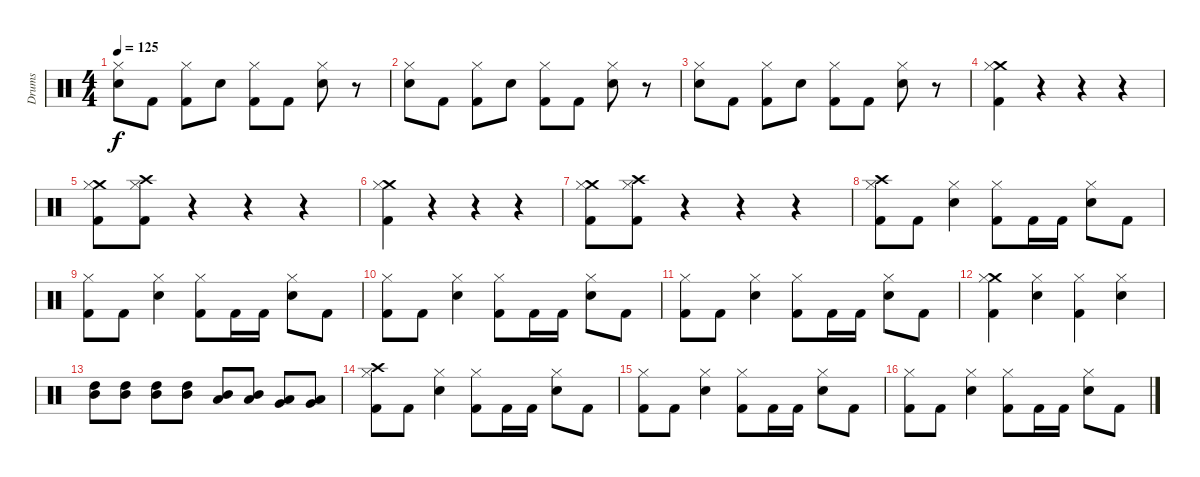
\track ("Drums" "Drums") {instrument percussion}
\staff {score}
\articulation defaults
\ts (4 4)
\tempo 125
\clef neutral
\ks c
("Electric Snare (hit)" "Hi-Hat (closed)").8{dy f} "Kick (hit) 2".8 ("Kick (hit) 2" "Hi-Hat (closed)").8 "Electric Snare (hit)".8 ("Kick (hit) 2" "Hi-Hat (closed)").8 "Kick (hit) 2".8 ("Electric Snare (hit)" "Hi-Hat (closed)").8 r.8 |
("Electric Snare (hit)" "Hi-Hat (closed)").8 "Kick (hit) 2".8 ("Kick (hit) 2" "Hi-Hat (closed)").8 "Electric Snare (hit)".8 ("Kick (hit) 2" "Hi-Hat (closed)").8 "Kick (hit) 2".8 ("Electric Snare (hit)" "Hi-Hat (closed)").8 r.8 |
("Electric Snare (hit)" "Hi-Hat (closed)").8 "Kick (hit) 2".8 ("Kick (hit) 2" "Hi-Hat (closed)").8 "Electric Snare (hit)".8 ("Kick (hit) 2" "Hi-Hat (closed)").8 "Kick (hit) 2".8 ("Electric Snare (hit)" "Hi-Hat (closed)").8 r.8 |
("Kick (hit) 2" "Crash medium (hit)" "Hi-Hat (closed)").4 r.4 r.4 r.4 |
("Kick (hit) 2" "Crash medium (hit)" "Hi-Hat (closed)").8 ("Kick (hit) 2" "Crash high (hit)" "Hi-Hat (closed)").8 r.4 r.4 r.4 |
("Kick (hit) 2" "Crash medium (hit)" "Hi-Hat (closed)").4 r.4 r.4 r.4 |
("Kick (hit) 2" "Crash medium (hit)" "Hi-Hat (closed)").8 ("Kick (hit) 2" "Crash high (hit)" "Hi-Hat (closed)").8 r.4 r.4 r.4 |
("Kick (hit) 2" "Crash high (hit)" "Hi-Hat (closed)").8 "Kick (hit) 2".8 ("Electric Snare (hit)" "Hi-Hat (closed)").4 ("Kick (hit) 2" "Hi-Hat (closed)").8 "Kick (hit) 2".16 "Kick (hit) 2".16 ("Electric Snare (hit)" "Hi-Hat (closed)").8 "Kick (hit) 2".8 |
("Kick (hit) 2" "Hi-Hat (closed)").8 "Kick (hit) 2".8 ("Electric Snare (hit)" "Hi-Hat (closed)").4 ("Kick (hit) 2" "Hi-Hat (closed)").8 "Kick (hit) 2".16 "Kick (hit) 2".16 ("Electric Snare (hit)" "Hi-Hat (closed)").8 "Kick (hit) 2".8 |
("Kick (hit) 2" "Hi-Hat (closed)").8 "Kick (hit) 2".8 ("Electric Snare (hit)" "Hi-Hat (closed)").4 ("Kick (hit) 2" "Hi-Hat (closed)").8 "Kick (hit) 2".16 "Kick (hit) 2".16 ("Electric Snare (hit)" "Hi-Hat (closed)").8 "Kick (hit) 2".8 |
("Kick (hit) 2" "Hi-Hat (closed)").8 "Kick (hit) 2".8 ("Electric Snare (hit)" "Hi-Hat (closed)").4 ("Kick (hit) 2" "Hi-Hat (closed)").8 "Kick (hit) 2".16 "Kick (hit) 2".16 ("Electric Snare (hit)" "Hi-Hat (closed)").8 "Kick (hit) 2".8 |
("Kick (hit) 2" "Crash medium (hit)" "Hi-Hat (closed)").4 ("Electric Snare (hit)" "Hi-Hat (closed)").4 ("Kick (hit) 2" "Hi-Hat (closed)").4 ("Electric Snare (hit)" "Hi-Hat (closed)").4 |
("Mid Tom (hit)" "High Tom (hit)").8 ("Mid Tom (hit)" "High Tom (hit)").8 ("Mid Tom (hit)" "High Tom (hit)").8 ("Mid Tom (hit)" "High Tom (hit)").8 ("Low Tom (hit)" "Mid Tom (hit)").8 ("Low Tom (hit)" "Mid Tom (hit)").8 ("Very Low Tom (hit)" "Low Tom (hit)").8 ("Very Low Tom (hit)" "Low Tom (hit)").8 |
("Kick (hit) 2" "Crash high (hit)" "Hi-Hat (closed)").8 "Kick (hit) 2".8 ("Electric Snare (hit)" "Hi-Hat (closed)").4 ("Kick (hit) 2" "Hi-Hat (closed)").8 "Kick (hit) 2".16 "Kick (hit) 2".16 ("Electric Snare (hit)" "Hi-Hat (closed)").8 "Kick (hit) 2".8 |
("Kick (hit) 2" "Hi-Hat (closed)").8 "Kick (hit) 2".8 ("Electric Snare (hit)" "Hi-Hat (closed)").4 ("Kick (hit) 2" "Hi-Hat (closed)").8 "Kick (hit) 2".16 "Kick (hit) 2".16 ("Electric Snare (hit)" "Hi-Hat (closed)").8 "Kick (hit) 2".8 |
("Kick (hit) 2" "Hi-Hat (closed)").8 "Kick (hit) 2".8 ("Electric Snare (hit)" "Hi-Hat (closed)").4 ("Kick (hit) 2" "Hi-Hat (closed)").8 "Kick (hit) 2".16 "Kick (hit) 2".16 ("Electric Snare (hit)" "Hi-Hat (closed)").8 "Kick (hit) 2".8
